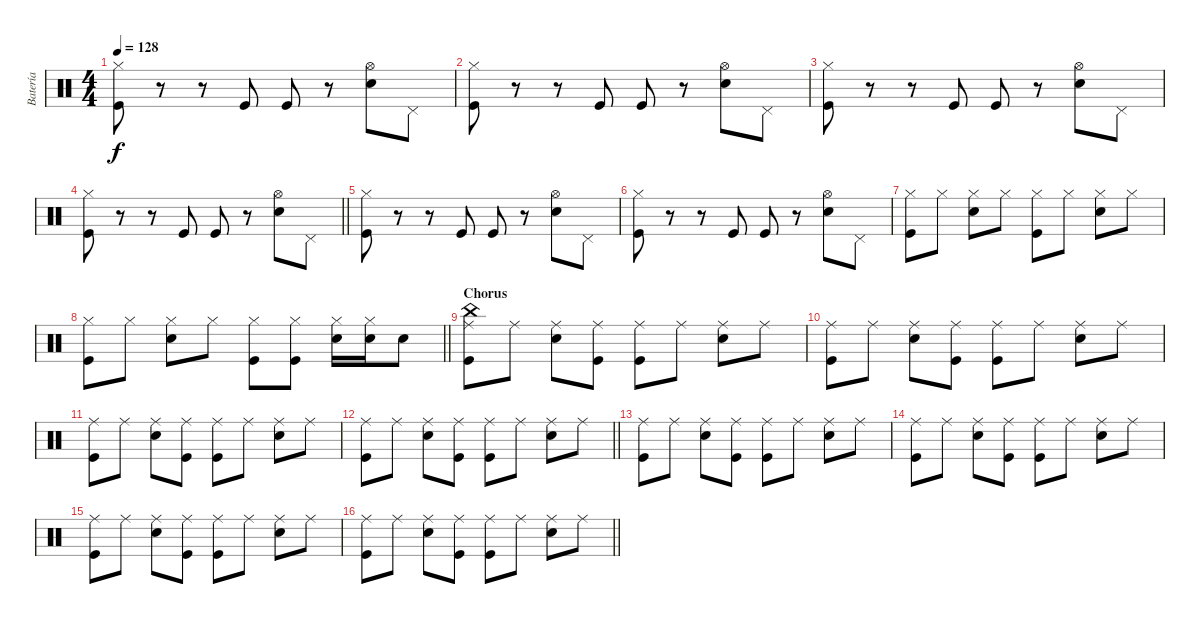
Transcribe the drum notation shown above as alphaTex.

\track ("Batería" "Batería") {instrument percussion}
\staff {score}
\articulation defaults
\ts (4 4)
\tempo 128
\clef neutral
\ks c
("Hi-Hat (closed)" "Kick (hit)").8{dy f} r.8 r.8 "Kick (hit)".8 "Kick (hit)".8 r.8 ("Hi-Hat (open)" "Snare (hit) 2").8 "Pedal Hi-Hat (hit)".8 |
("Hi-Hat (closed)" "Kick (hit)").8 r.8 r.8 "Kick (hit)".8 "Kick (hit)".8 r.8 ("Hi-Hat (open)" "Snare (hit) 2").8 "Pedal Hi-Hat (hit)".8 |
("Hi-Hat (closed)" "Kick (hit)").8 r.8 r.8 "Kick (hit)".8 "Kick (hit)".8 r.8 ("Hi-Hat (open)" "Snare (hit) 2").8 "Pedal Hi-Hat (hit)".8 |
\barLineRight lightlight
("Hi-Hat (closed)" "Kick (hit)").8 r.8 r.8 "Kick (hit)".8 "Kick (hit)".8 r.8 ("Hi-Hat (open)" "Snare (hit) 2").8 "Pedal Hi-Hat (hit)".8 |
("Hi-Hat (closed)" "Kick (hit)").8 r.8 r.8 "Kick (hit)".8 "Kick (hit)".8 r.8 ("Hi-Hat (open)" "Snare (hit) 2").8 "Pedal Hi-Hat (hit)".8 |
("Hi-Hat (closed)" "Kick (hit)").8 r.8 r.8 "Kick (hit)".8 "Kick (hit)".8 r.8 ("Hi-Hat (open)" "Snare (hit) 2").8 "Pedal Hi-Hat (hit)".8 |
("Hi-Hat (closed)" "Kick (hit)").8 "Hi-Hat (closed)".8 ("Hi-Hat (closed)" "Snare (hit) 2").8 "Hi-Hat (closed)".8 ("Hi-Hat (closed)" "Kick (hit)").8 "Hi-Hat (closed)".8 ("Hi-Hat (closed)" "Snare (hit) 2").8 "Hi-Hat (closed)".8 |
\barLineRight lightlight
("Hi-Hat (closed)" "Kick (hit)").8 "Hi-Hat (closed)".8 ("Hi-Hat (closed)" "Snare (hit) 2").8 "Hi-Hat (closed)".8 ("Hi-Hat (closed)" "Kick (hit)").8 ("Hi-Hat (closed)" "Kick (hit)").8 ("Hi-Hat (closed)" "Snare (hit) 2").16 ("Hi-Hat (closed)" "Snare (hit) 2").16 "Snare (hit) 2".8 |
\section ("" "Chorus")
("Ride (middle)" "Kick (hit)" "China (hit)").8 "Ride (middle)".8 ("Ride (middle)" "Snare (hit) 2").8 ("Ride (middle)" "Kick (hit)").8 ("Ride (middle)" "Kick (hit)").8 "Ride (middle)".8 ("Ride (middle)" "Snare (hit) 2").8 "Ride (middle)".8 |
("Ride (middle)" "Kick (hit)").8 "Ride (middle)".8 ("Ride (middle)" "Snare (hit) 2").8 ("Ride (middle)" "Kick (hit)").8 ("Ride (middle)" "Kick (hit)").8 "Ride (middle)".8 ("Ride (middle)" "Snare (hit) 2").8 "Ride (middle)".8 |
("Ride (middle)" "Kick (hit)").8 "Ride (middle)".8 ("Ride (middle)" "Snare (hit) 2").8 ("Ride (middle)" "Kick (hit)").8 ("Ride (middle)" "Kick (hit)").8 "Ride (middle)".8 ("Ride (middle)" "Snare (hit) 2").8 "Ride (middle)".8 |
\barLineRight lightlight
("Ride (middle)" "Kick (hit)").8 "Ride (middle)".8 ("Ride (middle)" "Snare (hit) 2").8 ("Ride (middle)" "Kick (hit)").8 ("Ride (middle)" "Kick (hit)").8 "Ride (middle)".8 ("Ride (middle)" "Snare (hit) 2").8 "Ride (middle)".8 |
("Ride (middle)" "Kick (hit)").8 "Ride (middle)".8 ("Ride (middle)" "Snare (hit) 2").8 ("Ride (middle)" "Kick (hit)").8 ("Ride (middle)" "Kick (hit)").8 "Ride (middle)".8 ("Ride (middle)" "Snare (hit) 2").8 "Ride (middle)".8 |
("Ride (middle)" "Kick (hit)").8 "Ride (middle)".8 ("Ride (middle)" "Snare (hit) 2").8 ("Ride (middle)" "Kick (hit)").8 ("Ride (middle)" "Kick (hit)").8 "Ride (middle)".8 ("Ride (middle)" "Snare (hit) 2").8 "Ride (middle)".8 |
("Ride (middle)" "Kick (hit)").8 "Ride (middle)".8 ("Ride (middle)" "Snare (hit) 2").8 ("Ride (middle)" "Kick (hit)").8 ("Ride (middle)" "Kick (hit)").8 "Ride (middle)".8 ("Ride (middle)" "Snare (hit) 2").8 "Ride (middle)".8 |
\barLineRight lightlight
("Ride (middle)" "Kick (hit)").8 "Ride (middle)".8 ("Ride (middle)" "Snare (hit) 2").8 ("Ride (middle)" "Kick (hit)").8 ("Ride (middle)" "Kick (hit)").8 "Ride (middle)".8 ("Ride (middle)" "Snare (hit) 2").8 "Ride (middle)".8
